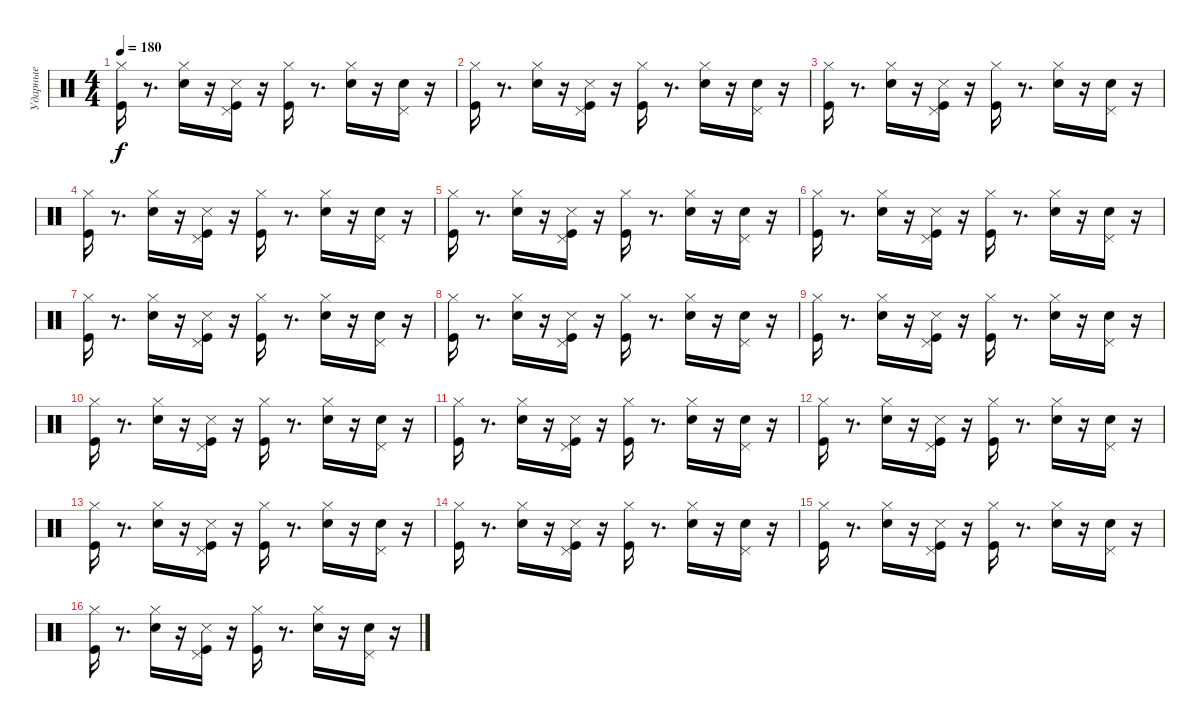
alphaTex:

\track ("Ударные" "Ударные") {instrument percussion}
\staff {score}
\articulation defaults
\ts (4 4)
\tempo 180
\clef neutral
\ks c
("Hi-Hat (closed)" "Kick (hit)").16{dy f} r.8{d} ("Hi-Hat (closed)" "Snare (hit) 2").16 r.16 ("Snare (side stick) 3" "Kick (hit)" "Pedal Hi-Hat (hit)").16 r.16 ("Hi-Hat (closed)" "Kick (hit)").16 r.8{d} ("Hi-Hat (closed)" "Snare (hit) 2").16 r.16 ("Snare (hit) 2" "Pedal Hi-Hat (hit)").16 r.16 |
("Hi-Hat (closed)" "Kick (hit)").16 r.8{d} ("Hi-Hat (closed)" "Snare (hit) 2").16 r.16 ("Snare (side stick) 3" "Kick (hit)" "Pedal Hi-Hat (hit)").16 r.16 ("Hi-Hat (closed)" "Kick (hit)").16 r.8{d} ("Hi-Hat (closed)" "Snare (hit) 2").16 r.16 ("Snare (hit) 2" "Pedal Hi-Hat (hit)").16 r.16 |
("Hi-Hat (closed)" "Kick (hit)").16 r.8{d} ("Hi-Hat (closed)" "Snare (hit) 2").16 r.16 ("Snare (side stick) 3" "Kick (hit)" "Pedal Hi-Hat (hit)").16 r.16 ("Hi-Hat (closed)" "Kick (hit)").16 r.8{d} ("Hi-Hat (closed)" "Snare (hit) 2").16 r.16 ("Snare (hit) 2" "Pedal Hi-Hat (hit)").16 r.16 |
("Hi-Hat (closed)" "Kick (hit)").16 r.8{d} ("Hi-Hat (closed)" "Snare (hit) 2").16 r.16 ("Snare (side stick) 3" "Kick (hit)" "Pedal Hi-Hat (hit)").16 r.16 ("Hi-Hat (closed)" "Kick (hit)").16 r.8{d} ("Hi-Hat (closed)" "Snare (hit) 2").16 r.16 ("Snare (hit) 2" "Pedal Hi-Hat (hit)").16 r.16 |
("Hi-Hat (closed)" "Kick (hit)").16 r.8{d} ("Hi-Hat (closed)" "Snare (hit) 2").16 r.16 ("Snare (side stick) 3" "Kick (hit)" "Pedal Hi-Hat (hit)").16 r.16 ("Hi-Hat (closed)" "Kick (hit)").16 r.8{d} ("Hi-Hat (closed)" "Snare (hit) 2").16 r.16 ("Snare (hit) 2" "Pedal Hi-Hat (hit)").16 r.16 |
("Hi-Hat (closed)" "Kick (hit)").16 r.8{d} ("Hi-Hat (closed)" "Snare (hit) 2").16 r.16 ("Snare (side stick) 3" "Kick (hit)" "Pedal Hi-Hat (hit)").16 r.16 ("Hi-Hat (closed)" "Kick (hit)").16 r.8{d} ("Hi-Hat (closed)" "Snare (hit) 2").16 r.16 ("Snare (hit) 2" "Pedal Hi-Hat (hit)").16 r.16 |
("Hi-Hat (closed)" "Kick (hit)").16 r.8{d} ("Hi-Hat (closed)" "Snare (hit) 2").16 r.16 ("Snare (side stick) 3" "Kick (hit)" "Pedal Hi-Hat (hit)").16 r.16 ("Hi-Hat (closed)" "Kick (hit)").16 r.8{d} ("Hi-Hat (closed)" "Snare (hit) 2").16 r.16 ("Snare (hit) 2" "Pedal Hi-Hat (hit)").16 r.16 |
("Hi-Hat (closed)" "Kick (hit)").16 r.8{d} ("Hi-Hat (closed)" "Snare (hit) 2").16 r.16 ("Snare (side stick) 3" "Kick (hit)" "Pedal Hi-Hat (hit)").16 r.16 ("Hi-Hat (closed)" "Kick (hit)").16 r.8{d} ("Hi-Hat (closed)" "Snare (hit) 2").16 r.16 ("Snare (hit) 2" "Pedal Hi-Hat (hit)").16 r.16 |
("Hi-Hat (closed)" "Kick (hit)").16 r.8{d} ("Hi-Hat (closed)" "Snare (hit) 2").16 r.16 ("Snare (side stick) 3" "Kick (hit)" "Pedal Hi-Hat (hit)").16 r.16 ("Hi-Hat (closed)" "Kick (hit)").16 r.8{d} ("Hi-Hat (closed)" "Snare (hit) 2").16 r.16 ("Snare (hit) 2" "Pedal Hi-Hat (hit)").16 r.16 |
("Hi-Hat (closed)" "Kick (hit)").16 r.8{d} ("Hi-Hat (closed)" "Snare (hit) 2").16 r.16 ("Snare (side stick) 3" "Kick (hit)" "Pedal Hi-Hat (hit)").16 r.16 ("Hi-Hat (closed)" "Kick (hit)").16 r.8{d} ("Hi-Hat (closed)" "Snare (hit) 2").16 r.16 ("Snare (hit) 2" "Pedal Hi-Hat (hit)").16 r.16 |
("Hi-Hat (closed)" "Kick (hit)").16 r.8{d} ("Hi-Hat (closed)" "Snare (hit) 2").16 r.16 ("Snare (side stick) 3" "Kick (hit)" "Pedal Hi-Hat (hit)").16 r.16 ("Hi-Hat (closed)" "Kick (hit)").16 r.8{d} ("Hi-Hat (closed)" "Snare (hit) 2").16 r.16 ("Snare (hit) 2" "Pedal Hi-Hat (hit)").16 r.16 |
("Hi-Hat (closed)" "Kick (hit)").16 r.8{d} ("Hi-Hat (closed)" "Snare (hit) 2").16 r.16 ("Snare (side stick) 3" "Kick (hit)" "Pedal Hi-Hat (hit)").16 r.16 ("Hi-Hat (closed)" "Kick (hit)").16 r.8{d} ("Hi-Hat (closed)" "Snare (hit) 2").16 r.16 ("Snare (hit) 2" "Pedal Hi-Hat (hit)").16 r.16 |
("Hi-Hat (closed)" "Kick (hit)").16 r.8{d} ("Hi-Hat (closed)" "Snare (hit) 2").16 r.16 ("Snare (side stick) 3" "Kick (hit)" "Pedal Hi-Hat (hit)").16 r.16 ("Hi-Hat (closed)" "Kick (hit)").16 r.8{d} ("Hi-Hat (closed)" "Snare (hit) 2").16 r.16 ("Snare (hit) 2" "Pedal Hi-Hat (hit)").16 r.16 |
("Hi-Hat (closed)" "Kick (hit)").16 r.8{d} ("Hi-Hat (closed)" "Snare (hit) 2").16 r.16 ("Snare (side stick) 3" "Kick (hit)" "Pedal Hi-Hat (hit)").16 r.16 ("Hi-Hat (closed)" "Kick (hit)").16 r.8{d} ("Hi-Hat (closed)" "Snare (hit) 2").16 r.16 ("Snare (hit) 2" "Pedal Hi-Hat (hit)").16 r.16 |
("Hi-Hat (closed)" "Kick (hit)").16 r.8{d} ("Hi-Hat (closed)" "Snare (hit) 2").16 r.16 ("Snare (side stick) 3" "Kick (hit)" "Pedal Hi-Hat (hit)").16 r.16 ("Hi-Hat (closed)" "Kick (hit)").16 r.8{d} ("Hi-Hat (closed)" "Snare (hit) 2").16 r.16 ("Snare (hit) 2" "Pedal Hi-Hat (hit)").16 r.16 |
("Hi-Hat (closed)" "Kick (hit)").16 r.8{d} ("Hi-Hat (closed)" "Snare (hit) 2").16 r.16 ("Snare (side stick) 3" "Kick (hit)" "Pedal Hi-Hat (hit)").16 r.16 ("Hi-Hat (closed)" "Kick (hit)").16 r.8{d} ("Hi-Hat (closed)" "Snare (hit) 2").16 r.16 ("Snare (hit) 2" "Pedal Hi-Hat (hit)").16 r.16
